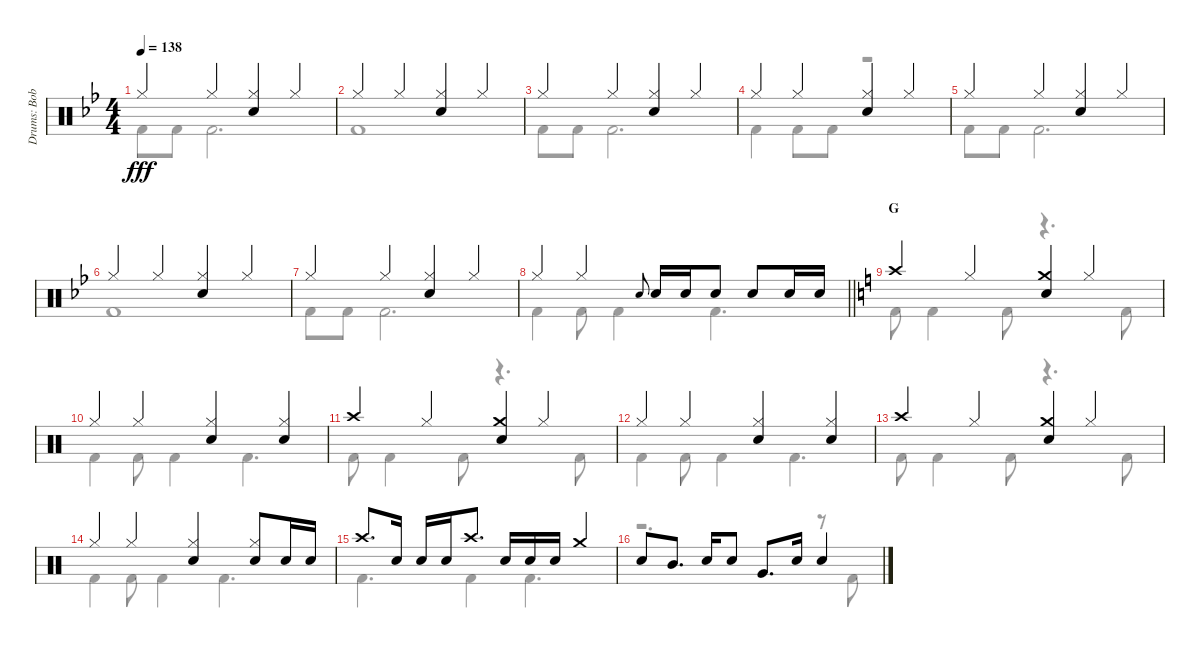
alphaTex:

\track ("Drums: Bobby" "Drums: Bob") {instrument percussion}
\staff {score}
\articulation defaults
\voice
\ts (4 4)
\tempo 138
\clef neutral
\ks bb "Hi-Hat (closed)".4{dy fff} "Hi-Hat (closed)".4
("Hi-Hat (closed)" "Snare (hit) 2").4 "Hi-Hat (closed)".4 |
"Hi-Hat (closed)".4 "Hi-Hat (closed)".4 ("Hi-Hat (closed)" "Snare (hit) 2").4 "Hi-Hat (closed)".4 |
"Hi-Hat (closed)".4 "Hi-Hat (closed)".4 ("Hi-Hat (closed)" "Snare (hit) 2").4 "Hi-Hat (closed)".4 |
"Hi-Hat (closed)".4 "Hi-Hat (closed)".4 ("Hi-Hat (closed)" "Snare (hit) 2").4 "Hi-Hat (closed)".4 |
"Hi-Hat (closed)".4 "Hi-Hat (closed)".4 ("Hi-Hat (closed)" "Snare (hit) 2").4 "Hi-Hat (closed)".4 |
"Hi-Hat (closed)".4 "Hi-Hat (closed)".4 ("Hi-Hat (closed)" "Snare (hit) 2").4 "Hi-Hat (closed)".4 |
"Hi-Hat (closed)".4 "Hi-Hat (closed)".4 ("Hi-Hat (closed)" "Snare (hit) 2").4 "Hi-Hat (closed)".4 |
\barLineRight lightlight "Hi-Hat (closed)".4 "Hi-Hat (closed)".4 "Electric Snare (hit)".8{gr onbeat} "Snare (hit) 2".16 "Snare (hit) 2".16 "Snare (hit) 2".8 "Snare (hit) 2".8 "Snare (hit) 2".16 "Snare (hit) 2".16
|
\section ("" "G")
\ks c "Crash high (hit)".4 "Hi-Hat (closed)".4
("Crash medium (hit)" "Snare (hit) 2").4 "Hi-Hat (closed)".4 |
"Hi-Hat (closed)".4 "Hi-Hat (closed)".4 ("Hi-Hat (closed)" "Snare (hit) 2").4 ("Hi-Hat (closed)" "Snare (hit) 2").4 |
"Crash high (hit)".4 "Hi-Hat (closed)".4 ("Crash medium (hit)" "Snare (hit) 2").4 "Hi-Hat (closed)".4 |
"Hi-Hat (closed)".4 "Hi-Hat (closed)".4 ("Hi-Hat (closed)" "Snare (hit) 2").4 ("Hi-Hat (closed)" "Snare (hit) 2").4 |
"Crash high (hit)".4 "Hi-Hat (closed)".4 ("Crash medium (hit)" "Snare (hit) 2").4 "Hi-Hat (closed)".4 |
"Hi-Hat (closed)".4 "Hi-Hat (closed)".4 ("Hi-Hat (closed)" "Snare (hit) 2").4 ("Hi-Hat (closed)" "Snare (hit) 2").8 "Snare (hit) 2".16 "Snare (hit) 2".16 |
"Crash high (hit)".8{d} "Snare (hit) 2".16 "Snare (hit) 2".16 "Snare (hit) 2".16 "Crash high (hit)".8{d} "Snare (hit) 2".16 "Snare (hit) 2".16 "Snare (hit) 2".16 "Crash medium (hit)".4 |
"Snare (hit) 2".8 "Mid Tom (hit)".8{d} "Snare (hit) 2".16 "Snare (hit) 2".8 "Very Low Tom (hit)".8{d} "Snare (hit) 2".16 "Snare (hit) 2".4
\voice
\clef neutral
\ottava regular
\simile none
\ks bb "Kick (hit) 2".8{dy fff} "Kick (hit) 2".8 "Kick (hit) 2".2{d}
|
"Kick (hit) 2".1 |
"Kick (hit) 2".8 "Kick (hit) 2".8 "Kick (hit) 2".2{d} |
"Kick (hit) 2".4 "Kick (hit) 2".8 "Kick (hit) 2".8 r.2 |
"Kick (hit) 2".8 "Kick (hit) 2".8 "Kick (hit) 2".2{d} |
"Kick (hit) 2".1 |
"Kick (hit) 2".8 "Kick (hit) 2".8 "Kick (hit) 2".2{d} |
\barLineRight lightlight "Kick (hit) 2".4 "Kick (hit) 2".8 "Kick (hit) 2".4 "Kick (hit) 2".4{d}
|
\ks c "Kick (hit) 2".8 "Kick (hit) 2".4 "Kick (hit) 2".8
r.4{d} "Kick (hit) 2".8 |
"Kick (hit) 2".4 "Kick (hit) 2".8 "Kick (hit) 2".4 "Kick (hit) 2".4{d} |
"Kick (hit) 2".8 "Kick (hit) 2".4 "Kick (hit) 2".8 r.4{d} "Kick (hit) 2".8 |
"Kick (hit) 2".4 "Kick (hit) 2".8 "Kick (hit) 2".4 "Kick (hit) 2".4{d} |
"Kick (hit) 2".8 "Kick (hit) 2".4 "Kick (hit) 2".8 r.4{d} "Kick (hit) 2".8 |
"Kick (hit) 2".4 "Kick (hit) 2".8 "Kick (hit) 2".4 "Kick (hit) 2".4{d} |
"Kick (hit) 2".4{d} "Kick (hit) 2".4 "Kick (hit) 2".4{d} |
r.2{d} r.8 "Kick (hit) 2".8
